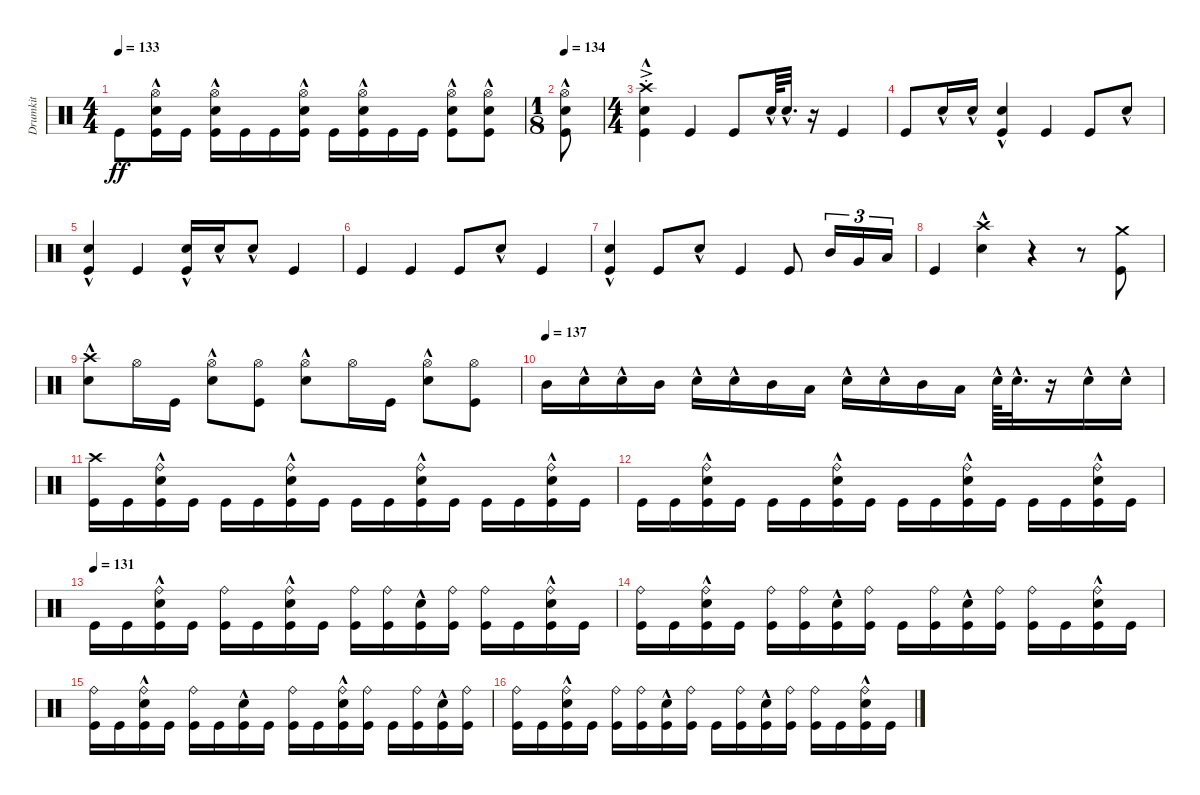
\track ("Drumkit" "Drumkit") {instrument percussion}
\staff {score}
\articulation defaults
\ts (4 4)
\tempo 133
\clef neutral
\ks aminor "Kick (hit)".8{dy ff}
("Snare (hit) 2"{hac} "Kick (hit)" "Hi-Hat (open)").16 "Kick (hit)".16 ("Snare (hit) 2"{hac} "Kick (hit)" "Hi-Hat (open)").16 "Kick (hit)".16 "Kick (hit)".16 ("Snare (hit) 2"{hac} "Kick (hit)" "Hi-Hat (open)").16 "Kick (hit)".16 ("Snare (hit) 2"{hac} "Kick (hit)" "Hi-Hat (open)").16 "Kick (hit)".16 "Kick (hit)".16 ("Snare (hit) 2"{hac} "Kick (hit)" "Hi-Hat (open)").8 ("Snare (hit) 2"{hac} "Kick (hit)" "Hi-Hat (open)").8 |
\ts (1 8)
\tempo 134
("Kick (hit)" "Snare (hit) 2"{hac} "Hi-Hat (open)").8 |
\ts (4 4)
("Kick (hit)" "Crash high (hit)"{ac st} "Snare (hit) 2"{hac}).4 "Kick (hit)".4 "Kick (hit)".8 "Snare (hit) 2"{hac}.64 "Snare (hit) 2"{hac}.32{d} r.16 "Kick (hit)".4 |
"Kick (hit)".8 "Snare (hit) 2"{hac}.16 "Snare (hit) 2"{hac}.16 ("Kick (hit)" "Snare (hit) 2"{hac}).4 "Kick (hit)".4 "Kick (hit)".8 "Snare (hit) 2"{hac}.8 |
("Kick (hit)" "Snare (hit) 2"{hac}).4 "Kick (hit)".4 ("Snare (hit) 2"{hac} "Kick (hit)").16 "Snare (hit) 2"{hac}.16 "Snare (hit) 2"{hac}.8 "Kick (hit)".4 |
"Kick (hit)".4 "Kick (hit)".4 "Kick (hit)".8 "Snare (hit) 2"{hac}.8 "Kick (hit)".4 |
("Kick (hit)" "Snare (hit) 2"{hac}).4 "Kick (hit)".8 "Snare (hit) 2"{hac}.8 "Kick (hit)".4 "Kick (hit)".8 "Mid Tom (hit)".16{tu (3 2)} "Very Low Tom (hit)".16{tu (3 2)} "Low Tom (hit)".16{tu (3 2)} |
"Kick (hit)".4 ("Snare (hit) 2"{hac} "Crash high (hit)").4 r.4 r.8 ("Kick (hit)" "Crash medium (hit)").8 |
("Snare (hit) 2"{hac} "Crash high (hit)").8 "Hi-Hat (open)".16 "Kick (hit)".16 ("Snare (hit) 2"{hac} "Hi-Hat (open)").8 ("Kick (hit)" "Hi-Hat (open)").8 ("Snare (hit) 2"{hac} "Hi-Hat (open)").8 "Hi-Hat (open)".16 "Kick (hit)".16 ("Snare (hit) 2"{hac} "Hi-Hat (open)").8 ("Kick (hit)" "Hi-Hat (open)").8 |
\tempo (137)
"Mid Tom (hit)".16 "Snare (hit) 2"{hac}.16 "Snare (hit) 2"{hac}.16 "Mid Tom (hit)".16 "Snare (hit) 2"{hac}.16 "Snare (hit) 2"{hac}.16 "Mid Tom (hit)".16 "Low Tom (hit)".16 "Snare (hit) 2"{hac}.16 "Snare (hit) 2"{hac}.16 "Mid Tom (hit)".16 "Low Tom (hit)".16 "Snare (hit) 2"{hac}.64 "Snare (hit) 2"{hac}.32{d} r.16 "Snare (hit) 2"{hac}.16 "Snare (hit) 2"{hac}.16 |
("Kick (hit)" "Crash high (hit)").16 "Kick (hit)".16 ("Kick (hit)" "Snare (hit) 2"{hac} "Ride (bell)").16 "Kick (hit)".16 "Kick (hit)".16 "Kick (hit)".16 ("Kick (hit)" "Snare (hit) 2"{hac} "Ride (bell)").16 "Kick (hit)".16 "Kick (hit)".16 "Kick (hit)".16 ("Kick (hit)" "Snare (hit) 2"{hac} "Ride (bell)").16 "Kick (hit)".16 "Kick (hit)".16 "Kick (hit)".16 ("Kick (hit)" "Snare (hit) 2"{hac} "Ride (bell)").16 "Kick (hit)".16 |
"Kick (hit)".16 "Kick (hit)".16 ("Kick (hit)" "Snare (hit) 2"{hac} "Ride (bell)").16 "Kick (hit)".16 "Kick (hit)".16 "Kick (hit)".16 ("Kick (hit)" "Snare (hit) 2"{hac} "Ride (bell)").16 "Kick (hit)".16 "Kick (hit)".16 "Kick (hit)".16 ("Kick (hit)" "Snare (hit) 2"{hac} "Ride (bell)").16 "Kick (hit)".16 "Kick (hit)".16 "Kick (hit)".16 ("Kick (hit)" "Snare (hit) 2"{hac} "Ride (bell)").16 "Kick (hit)".16 |
\tempo (131)
"Kick (hit)".16 "Kick (hit)".16 ("Kick (hit)" "Snare (hit) 2"{hac} "Ride (bell)").16 "Kick (hit)".16 ("Kick (hit)" "Ride (bell)").16 "Kick (hit)".16 ("Kick (hit)" "Snare (hit) 2"{hac} "Ride (bell)").16 "Kick (hit)".16 ("Kick (hit)" "Ride (bell)").16 ("Kick (hit)" "Ride (bell)").16 ("Kick (hit)" "Snare (hit) 2"{hac}).16 ("Kick (hit)" "Ride (bell)").16 ("Kick (hit)" "Ride (bell)").16 "Kick (hit)".16 ("Kick (hit)" "Snare (hit) 2"{hac} "Ride (bell)").16 "Kick (hit)".16 |
("Kick (hit)" "Ride (bell)").16 "Kick (hit)".16 ("Kick (hit)" "Snare (hit) 2"{hac} "Ride (bell)").16 "Kick (hit)".16 ("Kick (hit)" "Ride (bell)").16 ("Kick (hit)" "Ride (bell)").16 ("Kick (hit)" "Snare (hit) 2"{hac}).16 ("Kick (hit)" "Ride (bell)").16 "Kick (hit)".16 ("Kick (hit)" "Ride (bell)").16 ("Kick (hit)" "Snare (hit) 2"{hac}).16 ("Kick (hit)" "Ride (bell)").16 ("Kick (hit)" "Ride (bell)").16 "Kick (hit)".16 ("Kick (hit)" "Snare (hit) 2"{hac} "Ride (bell)").16 "Kick (hit)".16 |
("Kick (hit)" "Ride (bell)").16 "Kick (hit)".16 ("Kick (hit)" "Snare (hit) 2"{hac} "Ride (bell)").16 "Kick (hit)".16 ("Kick (hit)" "Ride (bell)").16 "Kick (hit)".16 ("Kick (hit)" "Snare (hit) 2"{hac}).16 "Kick (hit)".16 ("Kick (hit)" "Ride (bell)").16 "Kick (hit)".16 ("Kick (hit)" "Snare (hit) 2"{hac} "Ride (bell)").16 ("Kick (hit)" "Ride (bell)").16 "Kick (hit)".16 ("Kick (hit)" "Ride (bell)").16 ("Kick (hit)" "Snare (hit) 2"{hac}).16 ("Kick (hit)" "Ride (bell)").16 |
("Kick (hit)" "Ride (bell)").16 "Kick (hit)".16 ("Kick (hit)" "Snare (hit) 2"{hac} "Ride (bell)").16 "Kick (hit)".16 ("Kick (hit)" "Ride (bell)").16 ("Kick (hit)" "Ride (bell)").16 ("Kick (hit)" "Snare (hit) 2"{hac}).16 ("Kick (hit)" "Ride (bell)").16 "Kick (hit)".16 ("Kick (hit)" "Ride (bell)").16 ("Kick (hit)" "Snare (hit) 2"{hac}).16 ("Kick (hit)" "Ride (bell)").16 ("Kick (hit)" "Ride (bell)").16 "Kick (hit)".16 ("Kick (hit)" "Snare (hit) 2"{hac} "Ride (bell)").16 "Kick (hit)".16
